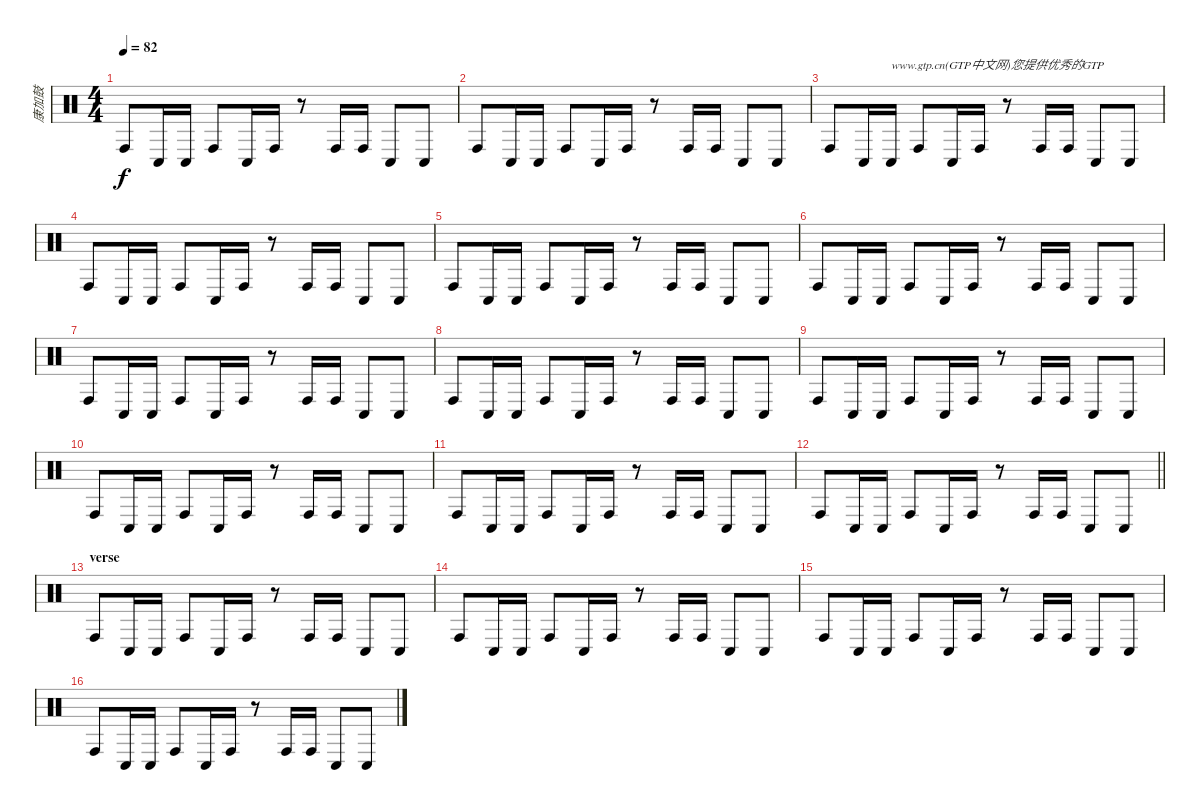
\track ("康加鼓" "康加鼓") {instrument percussion}
\staff {score}
\articulation defaults
\ts (4 4)
\tempo 82
\clef neutral
\ks c "Conga high (hit)".8{dy f} "Conga low (hit)".16 "Conga low (hit)".16 "Conga high (hit)".8 "Conga low (hit)".16 "Conga high (hit)".16
r.8 "Conga high (hit)".16 "Conga high (hit)".16 "Conga low (hit)".8 "Conga low (hit)".8 |
"Conga high (hit)".8 "Conga low (hit)".16 "Conga low (hit)".16 "Conga high (hit)".8 "Conga low (hit)".16 "Conga high (hit)".16 r.8 "Conga high (hit)".16 "Conga high (hit)".16 "Conga low (hit)".8 "Conga low (hit)".8 |
"Conga high (hit)".8{volume 10} "Conga low (hit)".16 "Conga low (hit)".16{txt "www.gtp.cn(GTP中文网)您提供优秀的GTP"} "Conga high (hit)".8 "Conga low (hit)".16 "Conga high (hit)".16 r.8 "Conga high (hit)".16 "Conga high (hit)".16 "Conga low (hit)".8 "Conga low (hit)".8 |
"Conga high (hit)".8 "Conga low (hit)".16 "Conga low (hit)".16 "Conga high (hit)".8 "Conga low (hit)".16 "Conga high (hit)".16 r.8 "Conga high (hit)".16 "Conga high (hit)".16 "Conga low (hit)".8 "Conga low (hit)".8 |
"Conga high (hit)".8 "Conga low (hit)".16 "Conga low (hit)".16 "Conga high (hit)".8 "Conga low (hit)".16 "Conga high (hit)".16 r.8 "Conga high (hit)".16 "Conga high (hit)".16 "Conga low (hit)".8 "Conga low (hit)".8 |
"Conga high (hit)".8 "Conga low (hit)".16 "Conga low (hit)".16 "Conga high (hit)".8 "Conga low (hit)".16 "Conga high (hit)".16 r.8 "Conga high (hit)".16 "Conga high (hit)".16 "Conga low (hit)".8 "Conga low (hit)".8 |
"Conga high (hit)".8 "Conga low (hit)".16 "Conga low (hit)".16 "Conga high (hit)".8 "Conga low (hit)".16 "Conga high (hit)".16 r.8 "Conga high (hit)".16 "Conga high (hit)".16 "Conga low (hit)".8 "Conga low (hit)".8 |
"Conga high (hit)".8 "Conga low (hit)".16 "Conga low (hit)".16 "Conga high (hit)".8 "Conga low (hit)".16 "Conga high (hit)".16 r.8 "Conga high (hit)".16 "Conga high (hit)".16 "Conga low (hit)".8 "Conga low (hit)".8 |
"Conga high (hit)".8 "Conga low (hit)".16 "Conga low (hit)".16 "Conga high (hit)".8 "Conga low (hit)".16 "Conga high (hit)".16 r.8 "Conga high (hit)".16 "Conga high (hit)".16 "Conga low (hit)".8 "Conga low (hit)".8 |
"Conga high (hit)".8 "Conga low (hit)".16 "Conga low (hit)".16 "Conga high (hit)".8 "Conga low (hit)".16 "Conga high (hit)".16 r.8 "Conga high (hit)".16 "Conga high (hit)".16 "Conga low (hit)".8 "Conga low (hit)".8 |
"Conga high (hit)".8 "Conga low (hit)".16 "Conga low (hit)".16 "Conga high (hit)".8 "Conga low (hit)".16 "Conga high (hit)".16 r.8 "Conga high (hit)".16 "Conga high (hit)".16 "Conga low (hit)".8 "Conga low (hit)".8 |
\barLineRight lightlight "Conga high (hit)".8 "Conga low (hit)".16 "Conga low (hit)".16 "Conga high (hit)".8 "Conga low (hit)".16 "Conga high (hit)".16
r.8 "Conga high (hit)".16 "Conga high (hit)".16 "Conga low (hit)".8 "Conga low (hit)".8 |
\section ("" "verse")
"Conga high (hit)".8 "Conga low (hit)".16 "Conga low (hit)".16 "Conga high (hit)".8 "Conga low (hit)".16 "Conga high (hit)".16 r.8 "Conga high (hit)".16 "Conga high (hit)".16 "Conga low (hit)".8 "Conga low (hit)".8 |
"Conga high (hit)".8 "Conga low (hit)".16 "Conga low (hit)".16 "Conga high (hit)".8 "Conga low (hit)".16 "Conga high (hit)".16 r.8 "Conga high (hit)".16 "Conga high (hit)".16 "Conga low (hit)".8 "Conga low (hit)".8 |
"Conga high (hit)".8 "Conga low (hit)".16 "Conga low (hit)".16 "Conga high (hit)".8 "Conga low (hit)".16 "Conga high (hit)".16 r.8 "Conga high (hit)".16 "Conga high (hit)".16 "Conga low (hit)".8 "Conga low (hit)".8 |
"Conga high (hit)".8 "Conga low (hit)".16 "Conga low (hit)".16 "Conga high (hit)".8 "Conga low (hit)".16 "Conga high (hit)".16 r.8 "Conga high (hit)".16 "Conga high (hit)".16 "Conga low (hit)".8 "Conga low (hit)".8
